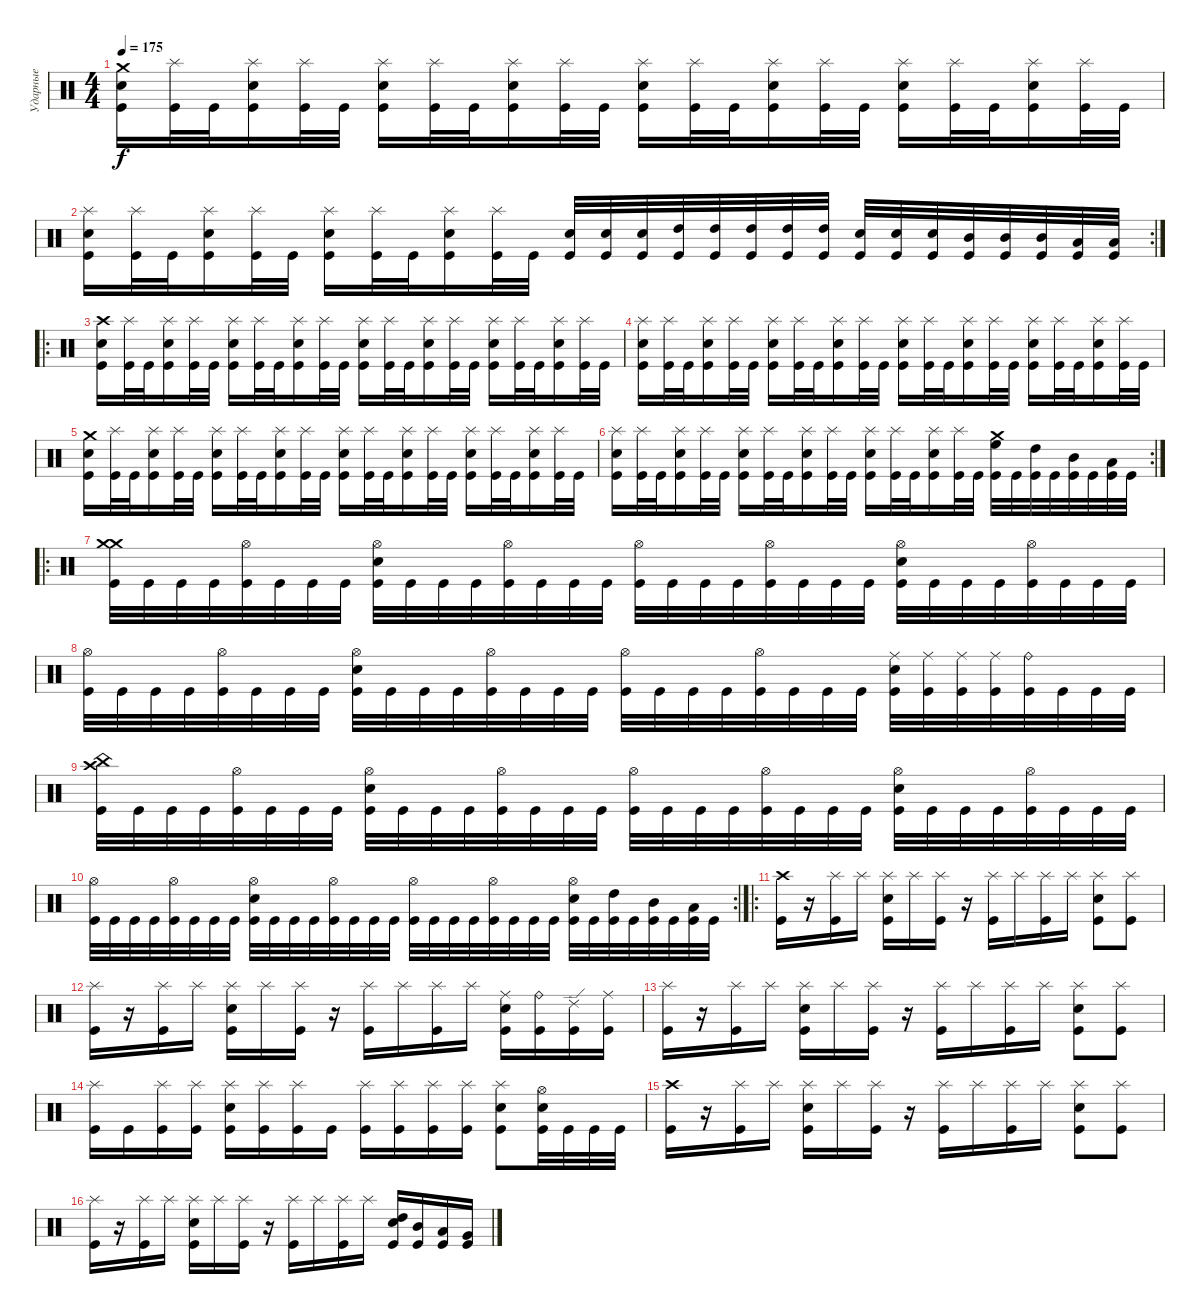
\track ("Ударные" "Ударные") {instrument percussion}
\staff {score}
\articulation defaults
\ts (4 4)
\tempo 175
\clef neutral
\ks c
("Crash medium (hit)" "Snare (hit) 2" "Kick (hit)").16{dy f} ("Splash (hit)" "Kick (hit)").32 "Kick (hit)".32 ("Splash (hit)" "Snare (hit) 2" "Kick (hit)").16 ("Splash (hit)" "Kick (hit)").32 "Kick (hit)".32 ("Splash (hit)" "Snare (hit) 2" "Kick (hit)").16 ("Splash (hit)" "Kick (hit)").32 "Kick (hit)".32 ("Splash (hit)" "Snare (hit) 2" "Kick (hit)").16 ("Splash (hit)" "Kick (hit)").32 "Kick (hit)".32 ("Splash (hit)" "Snare (hit) 2" "Kick (hit)").16 ("Splash (hit)" "Kick (hit)").32 "Kick (hit)".32 ("Splash (hit)" "Snare (hit) 2" "Kick (hit)").16 ("Splash (hit)" "Kick (hit)").32 "Kick (hit)".32 ("Splash (hit)" "Snare (hit) 2" "Kick (hit)").16 ("Splash (hit)" "Kick (hit)").32 "Kick (hit)".32 ("Splash (hit)" "Snare (hit) 2" "Kick (hit)").16 ("Splash (hit)" "Kick (hit)").32 "Kick (hit)".32 |
\rc 2
("Splash (hit)" "Snare (hit) 2" "Kick (hit)").16 ("Splash (hit)" "Kick (hit)").32 "Kick (hit)".32 ("Splash (hit)" "Snare (hit) 2" "Kick (hit)").16 ("Splash (hit)" "Kick (hit)").32 "Kick (hit)".32 ("Splash (hit)" "Snare (hit) 2" "Kick (hit)").16 ("Splash (hit)" "Kick (hit)").32 "Kick (hit)".32 ("Splash (hit)" "Snare (hit) 2" "Kick (hit)").16 ("Splash (hit)" "Kick (hit)").32 "Kick (hit)".32 ("Electric Snare (hit)" "Kick (hit)").32 ("Electric Snare (hit)" "Kick (hit)").32 ("Electric Snare (hit)" "Kick (hit)").32 ("High Tom (hit)" "Kick (hit)").32 ("High Tom (hit)" "Kick (hit)").32 ("High Tom (hit)" "Kick (hit)").32 ("High Tom (hit)" "Kick (hit)").32 ("High Tom (hit)" "Kick (hit)").32 ("Electric Snare (hit)" "Kick (hit)").32 ("Electric Snare (hit)" "Kick (hit)").32 ("Electric Snare (hit)" "Kick (hit)").32 ("Mid Tom (hit)" "Kick (hit)").32 ("Mid Tom (hit)" "Kick (hit)").32 ("Mid Tom (hit)" "Kick (hit)").32 ("Low Tom (hit)" "Kick (hit)").32 ("Low Tom (hit)" "Kick (hit)").32 |
\ro
("Crash high (hit)" "Snare (hit) 2" "Kick (hit)").16 ("Splash (hit)" "Kick (hit)").32 "Kick (hit)".32 ("Splash (hit)" "Snare (hit) 2" "Kick (hit)").16 ("Splash (hit)" "Kick (hit)").32 "Kick (hit)".32 ("Splash (hit)" "Snare (hit) 2" "Kick (hit)").16 ("Splash (hit)" "Kick (hit)").32 "Kick (hit)".32 ("Splash (hit)" "Snare (hit) 2" "Kick (hit)").16 ("Splash (hit)" "Kick (hit)").32 "Kick (hit)".32 ("Splash (hit)" "Snare (hit) 2" "Kick (hit)").16 ("Splash (hit)" "Kick (hit)").32 "Kick (hit)".32 ("Splash (hit)" "Snare (hit) 2" "Kick (hit)").16 ("Splash (hit)" "Kick (hit)").32 "Kick (hit)".32 ("Splash (hit)" "Snare (hit) 2" "Kick (hit)").16 ("Splash (hit)" "Kick (hit)").32 "Kick (hit)".32 ("Splash (hit)" "Snare (hit) 2" "Kick (hit)").16 ("Splash (hit)" "Kick (hit)").32 "Kick (hit)".32 |
("Splash (hit)" "Snare (hit) 2" "Kick (hit)").16 ("Splash (hit)" "Kick (hit)").32 "Kick (hit)".32 ("Splash (hit)" "Snare (hit) 2" "Kick (hit)").16 ("Splash (hit)" "Kick (hit)").32 "Kick (hit)".32 ("Splash (hit)" "Snare (hit) 2" "Kick (hit)").16 ("Splash (hit)" "Kick (hit)").32 "Kick (hit)".32 ("Splash (hit)" "Snare (hit) 2" "Kick (hit)").16 ("Splash (hit)" "Kick (hit)").32 "Kick (hit)".32 ("Splash (hit)" "Snare (hit) 2" "Kick (hit)").16 ("Splash (hit)" "Kick (hit)").32 "Kick (hit)".32 ("Splash (hit)" "Snare (hit) 2" "Kick (hit)").16 ("Splash (hit)" "Kick (hit)").32 "Kick (hit)".32 ("Splash (hit)" "Snare (hit) 2" "Kick (hit)").16 ("Splash (hit)" "Kick (hit)").32 "Kick (hit)".32 ("Splash (hit)" "Snare (hit) 2" "Kick (hit)").16 ("Splash (hit)" "Kick (hit)").32 "Kick (hit)".32 |
("Crash medium (hit)" "Snare (hit) 2" "Kick (hit)").16 ("Splash (hit)" "Kick (hit)").32 "Kick (hit)".32 ("Splash (hit)" "Snare (hit) 2" "Kick (hit)").16 ("Splash (hit)" "Kick (hit)").32 "Kick (hit)".32 ("Splash (hit)" "Snare (hit) 2" "Kick (hit)").16 ("Splash (hit)" "Kick (hit)").32 "Kick (hit)".32 ("Splash (hit)" "Snare (hit) 2" "Kick (hit)").16 ("Splash (hit)" "Kick (hit)").32 "Kick (hit)".32 ("Splash (hit)" "Snare (hit) 2" "Kick (hit)").16 ("Splash (hit)" "Kick (hit)").32 "Kick (hit)".32 ("Splash (hit)" "Snare (hit) 2" "Kick (hit)").16 ("Splash (hit)" "Kick (hit)").32 "Kick (hit)".32 ("Splash (hit)" "Snare (hit) 2" "Kick (hit)").16 ("Splash (hit)" "Kick (hit)").32 "Kick (hit)".32 ("Splash (hit)" "Snare (hit) 2" "Kick (hit)").16 ("Splash (hit)" "Kick (hit)").32 "Kick (hit)".32 |
\rc 2
("Splash (hit)" "Snare (hit) 2" "Kick (hit)").16 ("Splash (hit)" "Kick (hit)").32 "Kick (hit)".32 ("Splash (hit)" "Snare (hit) 2" "Kick (hit)").16 ("Splash (hit)" "Kick (hit)").32 "Kick (hit)".32 ("Splash (hit)" "Snare (hit) 2" "Kick (hit)").16 ("Splash (hit)" "Kick (hit)").32 "Kick (hit)".32 ("Splash (hit)" "Snare (hit) 2" "Kick (hit)").16 ("Splash (hit)" "Kick (hit)").32 "Kick (hit)".32 ("Splash (hit)" "Snare (hit) 2" "Kick (hit)").16 ("Splash (hit)" "Kick (hit)").32 "Kick (hit)".32 ("Splash (hit)" "Snare (hit) 2" "Kick (hit)").16 ("Splash (hit)" "Kick (hit)").32 "Kick (hit)".32 ("High Floor Tom (hit)" "Kick (hit)" "Crash medium (hit)").32 "Kick (hit)".32 ("High Tom (hit)" "Kick (hit)").32 "Kick (hit)".32 ("Mid Tom (hit)" "Kick (hit)").32 "Kick (hit)".32 ("Low Tom (hit)" "Kick (hit)").32 "Kick (hit)".32 |
\ro
("Crash medium (hit)" "Crash medium (hit)" "Kick (hit)").32 "Kick (hit)".32 "Kick (hit)".32 "Kick (hit)".32 ("Hi-Hat (open)" "Kick (hit)").32 "Kick (hit)".32 "Kick (hit)".32 "Kick (hit)".32 ("Snare (hit) 2" "Hi-Hat (open)" "Kick (hit)").32 "Kick (hit)".32 "Kick (hit)".32 "Kick (hit)".32 ("Hi-Hat (open)" "Kick (hit)").32 "Kick (hit)".32 "Kick (hit)".32 "Kick (hit)".32 ("Hi-Hat (open)" "Kick (hit)").32 "Kick (hit)".32 "Kick (hit)".32 "Kick (hit)".32 ("Hi-Hat (open)" "Kick (hit)").32 "Kick (hit)".32 "Kick (hit)".32 "Kick (hit)".32 ("Snare (hit) 2" "Hi-Hat (open)" "Kick (hit)").32 "Kick (hit)".32 "Kick (hit)".32 "Kick (hit)".32 ("Hi-Hat (open)" "Kick (hit)").32 "Kick (hit)".32 "Kick (hit)".32 "Kick (hit)".32 |
("Hi-Hat (open)" "Kick (hit)").32 "Kick (hit)".32 "Kick (hit)".32 "Kick (hit)".32 ("Hi-Hat (open)" "Kick (hit)").32 "Kick (hit)".32 "Kick (hit)".32 "Kick (hit)".32 ("Snare (hit) 2" "Hi-Hat (open)" "Kick (hit)").32 "Kick (hit)".32 "Kick (hit)".32 "Kick (hit)".32 ("Hi-Hat (open)" "Kick (hit)").32 "Kick (hit)".32 "Kick (hit)".32 "Kick (hit)".32 ("Hi-Hat (open)" "Kick (hit)").32 "Kick (hit)".32 "Kick (hit)".32 "Kick (hit)".32 ("Hi-Hat (open)" "Kick (hit)").32 "Kick (hit)".32 "Kick (hit)".32 "Kick (hit)".32 ("Snare (hit) 2" "Ride (middle)" "Kick (hit)").32 ("Ride (middle)" "Kick (hit)").32 ("Ride (middle)" "Kick (hit)").32 ("Ride (middle)" "Kick (hit)").32 ("Ride (bell)" "Kick (hit)").32 "Kick (hit)".32 "Kick (hit)".32 "Kick (hit)".32 |
("Crash high (hit)" "China (hit)" "Kick (hit)").32 "Kick (hit)".32 "Kick (hit)".32 "Kick (hit)".32 ("Hi-Hat (open)" "Kick (hit)").32 "Kick (hit)".32 "Kick (hit)".32 "Kick (hit)".32 ("Snare (hit) 2" "Hi-Hat (open)" "Kick (hit)").32 "Kick (hit)".32 "Kick (hit)".32 "Kick (hit)".32 ("Hi-Hat (open)" "Kick (hit)").32 "Kick (hit)".32 "Kick (hit)".32 "Kick (hit)".32 ("Hi-Hat (open)" "Kick (hit)").32 "Kick (hit)".32 "Kick (hit)".32 "Kick (hit)".32 ("Hi-Hat (open)" "Kick (hit)").32 "Kick (hit)".32 "Kick (hit)".32 "Kick (hit)".32 ("Snare (hit) 2" "Hi-Hat (open)" "Kick (hit)").32 "Kick (hit)".32 "Kick (hit)".32 "Kick (hit)".32 ("Hi-Hat (open)" "Kick (hit)").32 "Kick (hit)".32 "Kick (hit)".32 "Kick (hit)".32 |
\rc 2
("Hi-Hat (open)" "Kick (hit)").32 "Kick (hit)".32 "Kick (hit)".32 "Kick (hit)".32 ("Hi-Hat (open)" "Kick (hit)").32 "Kick (hit)".32 "Kick (hit)".32 "Kick (hit)".32 ("Snare (hit) 2" "Hi-Hat (open)" "Kick (hit)").32 "Kick (hit)".32 "Kick (hit)".32 "Kick (hit)".32 ("Hi-Hat (open)" "Kick (hit)").32 "Kick (hit)".32 "Kick (hit)".32 "Kick (hit)".32 ("Hi-Hat (open)" "Kick (hit)").32 "Kick (hit)".32 "Kick (hit)".32 "Kick (hit)".32 ("Hi-Hat (open)" "Kick (hit)").32 "Kick (hit)".32 "Kick (hit)".32 "Kick (hit)".32 ("Snare (hit) 2" "Hi-Hat (open)" "Kick (hit)").32 "Kick (hit)".32 ("High Tom (hit)" "Kick (hit)").32 "Kick (hit)".32 ("Mid Tom (hit)" "Kick (hit)").32 "Kick (hit)".32 ("Low Tom (hit)" "Kick (hit)").32 "Kick (hit)".32 |
\ro
("Crash high (hit)" "Kick (hit)").16 r.16 ("Splash (hit)" "Kick (hit)").16 "Splash (hit)".16 ("Snare (hit) 2" "Splash (hit)" "Kick (hit)").16 "Splash (hit)".16 ("Splash (hit)" "Kick (hit)").16 r.16 ("Splash (hit)" "Kick (hit)").16 "Splash (hit)".16 ("Splash (hit)" "Kick (hit)").16 "Splash (hit)".16 ("Snare (hit) 2" "Splash (hit)" "Kick (hit)").8 ("Splash (hit)" "Kick (hit)").8 |
("Splash (hit)" "Kick (hit)").16 r.16 ("Splash (hit)" "Kick (hit)").16 "Splash (hit)".16 ("Snare (hit) 2" "Splash (hit)" "Kick (hit)").16 "Splash (hit)".16 ("Splash (hit)" "Kick (hit)").16 r.16 ("Splash (hit)" "Kick (hit)").16 "Splash (hit)".16 ("Splash (hit)" "Kick (hit)").16 "Splash (hit)".16 ("Snare (hit) 2" "Ride (middle)" "Kick (hit)").16 ("Ride (bell)" "Kick (hit)").16 ("Ride (edge) 2" "Kick (hit)").16 ("Ride (middle)" "Kick (hit)").16 |
("Splash (hit)" "Kick (hit)").16 r.16 ("Splash (hit)" "Kick (hit)").16 "Splash (hit)".16 ("Snare (hit) 2" "Splash (hit)" "Kick (hit)").16 "Splash (hit)".16 ("Splash (hit)" "Kick (hit)").16 r.16 ("Splash (hit)" "Kick (hit)").16 "Splash (hit)".16 ("Splash (hit)" "Kick (hit)").16 "Splash (hit)".16 ("Snare (hit) 2" "Splash (hit)" "Kick (hit)").8 ("Splash (hit)" "Kick (hit)").8 |
("Splash (hit)" "Kick (hit)").16 "Kick (hit)".16 ("Splash (hit)" "Kick (hit)").16 ("Splash (hit)" "Kick (hit)").16 ("Snare (hit) 2" "Splash (hit)" "Kick (hit)").16 ("Splash (hit)" "Kick (hit)").16 ("Splash (hit)" "Kick (hit)").16 "Kick (hit)".16 ("Splash (hit)" "Kick (hit)").16 ("Splash (hit)" "Kick (hit)").16 ("Splash (hit)" "Kick (hit)").16 ("Splash (hit)" "Kick (hit)").16 ("Snare (hit) 2" "Splash (hit)" "Kick (hit)").8 ("Snare (hit) 2" "Hi-Hat (open)" "Kick (hit)").32 "Kick (hit)".32 "Kick (hit)".32 "Kick (hit)".32 |
("Crash high (hit)" "Kick (hit)").16 r.16 ("Splash (hit)" "Kick (hit)").16 "Splash (hit)".16 ("Snare (hit) 2" "Splash (hit)" "Kick (hit)").16 "Splash (hit)".16 ("Splash (hit)" "Kick (hit)").16 r.16 ("Splash (hit)" "Kick (hit)").16 "Splash (hit)".16 ("Splash (hit)" "Kick (hit)").16 "Splash (hit)".16 ("Snare (hit) 2" "Splash (hit)" "Kick (hit)").8 ("Splash (hit)" "Kick (hit)").8 |
("Splash (hit)" "Kick (hit)").16 r.16 ("Splash (hit)" "Kick (hit)").16 "Splash (hit)".16 ("Snare (hit) 2" "Splash (hit)" "Kick (hit)").16 "Splash (hit)".16 ("Splash (hit)" "Kick (hit)").16 r.16 ("Splash (hit)" "Kick (hit)").16 "Splash (hit)".16 ("Splash (hit)" "Kick (hit)").16 "Splash (hit)".16 ("Snare (hit) 2" "High Tom (hit)" "Kick (hit)").16 ("Mid Tom (hit)" "Kick (hit)").16 ("Low Tom (hit)" "Kick (hit)").16 ("Very Low Tom (hit)" "Kick (hit)").16
